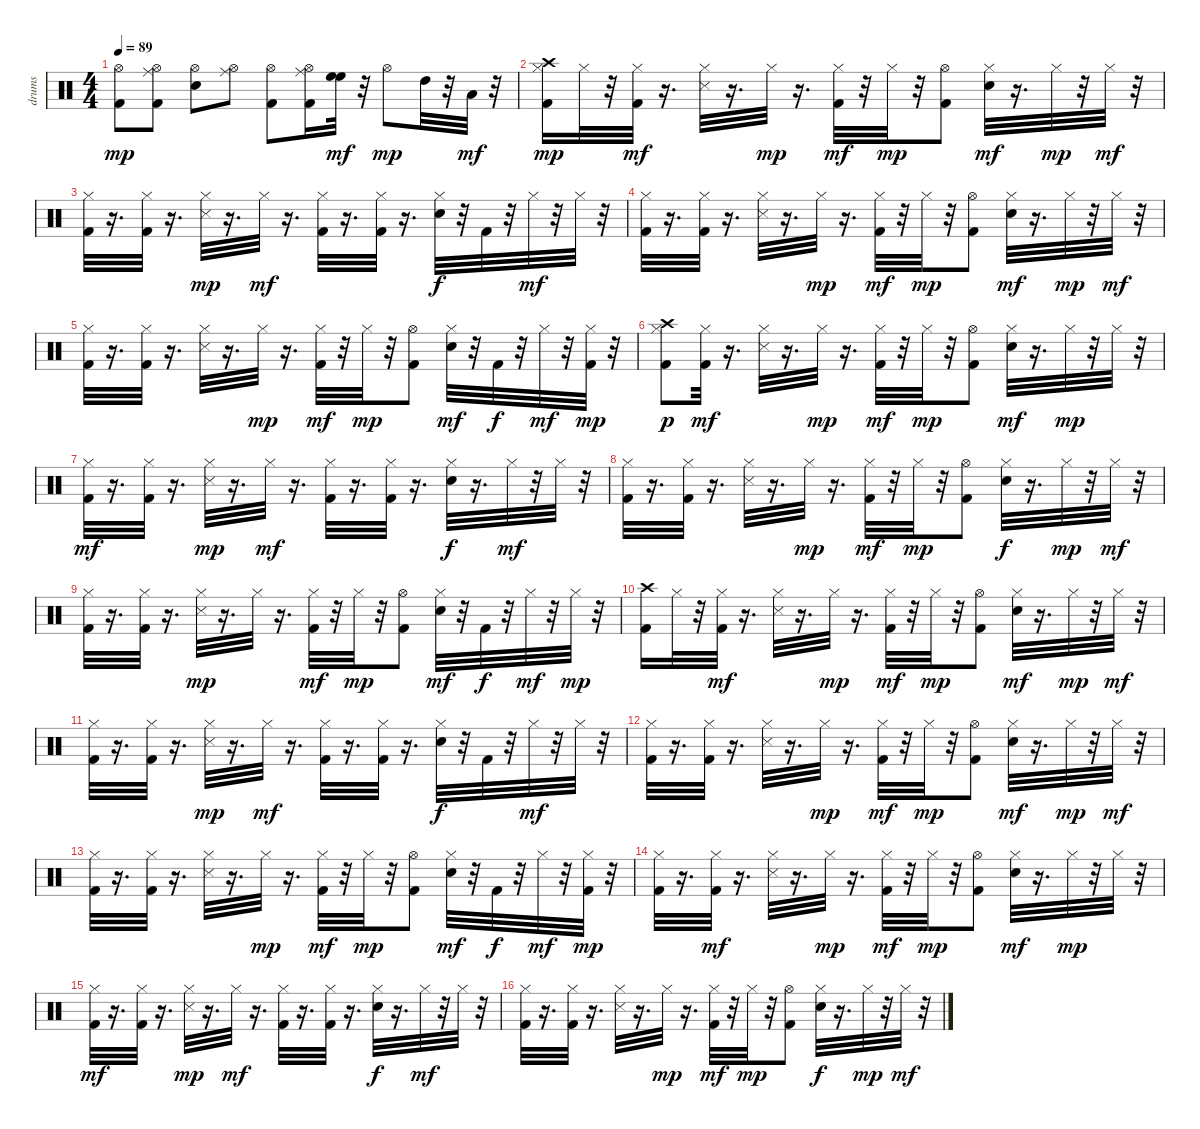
\track ("drums" "drums") {instrument percussion}
\staff {score}
\articulation defaults
\ts (4 4)
\tempo 89
\clef neutral
\ks c
("Kick (hit) 2" "Hi-Hat (open)").8{dy mp} ("Kick (hit) 2" "Hi-Hat (open)" "Ride (middle)").8 ("Snare (hit) 2" "Hi-Hat (open)").8 ("Hi-Hat (open)" "Ride (middle)").8 ("Kick (hit) 2" "Hi-Hat (open)").8 ("Kick (hit) 2" "Hi-Hat (open)" "Ride (middle)").16 ("High Floor Tom (hit)" "High Floor Tom (hit)").32{dy mf} r.32 "Hi-Hat (open)".8{dy mp} "High Tom (hit)".32 r.32 "Low Tom (hit)".32{dy mf} r.32 |
("Kick (hit) 2" "Hi-Hat (closed)" "Crash high (hit)").16{dy mp} "Hi-Hat (closed)".32 r.32 ("Kick (hit) 2" "Hi-Hat (closed)").32{dy mf} r.16{d} ("Snare (side stick) 3" "Hi-Hat (closed)").32 r.16{d} "Hi-Hat (closed)".32{dy mp} r.16{d} ("Kick (hit) 2" "Hi-Hat (closed)").32{dy mf} r.32 "Hi-Hat (closed)".32{dy mp} r.32 ("Kick (hit) 2" "Hi-Hat (open)").8 ("Snare (hit) 2" "Hi-Hat (closed)").32{dy mf} r.16{d} "Hi-Hat (closed)".32{dy mp} r.32 "Hi-Hat (closed)".32{dy mf} r.32 |
("Kick (hit) 2" "Hi-Hat (closed)").32 r.16{d} ("Kick (hit) 2" "Hi-Hat (closed)").32 r.16{d} ("Snare (side stick) 3" "Hi-Hat (closed)").32{dy mp} r.16{d} "Hi-Hat (closed)".32{dy mf} r.16{d} ("Kick (hit) 2" "Hi-Hat (closed)").32 r.16{d} ("Kick (hit) 2" "Hi-Hat (closed)").32 r.16{d} ("Snare (hit) 2" "Hi-Hat (closed)").32{dy f} r.32 "Kick (hit) 2".32 r.32 "Hi-Hat (closed)".32{dy mf} r.32 "Hi-Hat (closed)".32 r.32 |
("Kick (hit) 2" "Hi-Hat (closed)").32 r.16{d} ("Kick (hit) 2" "Hi-Hat (closed)").32 r.16{d} ("Snare (side stick) 3" "Hi-Hat (closed)").32 r.16{d} "Hi-Hat (closed)".32{dy mp} r.16{d} ("Kick (hit) 2" "Hi-Hat (closed)").32{dy mf} r.32 "Hi-Hat (closed)".32{dy mp} r.32 ("Kick (hit) 2" "Hi-Hat (open)").8 ("Snare (hit) 2" "Hi-Hat (closed)").32{dy mf} r.16{d} "Hi-Hat (closed)".32{dy mp} r.32 "Hi-Hat (closed)".32{dy mf} r.32 |
("Kick (hit) 2" "Hi-Hat (closed)").32 r.16{d} ("Kick (hit) 2" "Hi-Hat (closed)").32 r.16{d} ("Snare (side stick) 3" "Hi-Hat (closed)").32 r.16{d} "Hi-Hat (closed)".32{dy mp} r.16{d} ("Kick (hit) 2" "Hi-Hat (closed)").32{dy mf} r.32 "Hi-Hat (closed)".32{dy mp} r.32 ("Kick (hit) 2" "Hi-Hat (open)").8 ("Snare (hit) 2" "Hi-Hat (closed)").32{dy mf} r.32 "Kick (hit) 2".32{dy f} r.32 "Hi-Hat (closed)".32{dy mf} r.32 ("Kick (hit) 2" "Hi-Hat (closed)").32{dy mp} r.32 |
("Kick (hit) 2" "Hi-Hat (closed)" "Crash high (hit)").8{dy p} ("Kick (hit) 2" "Hi-Hat (closed)").32{dy mf} r.16{d} ("Snare (side stick) 3" "Hi-Hat (closed)").32 r.16{d} "Hi-Hat (closed)".32{dy mp} r.16{d} ("Kick (hit) 2" "Hi-Hat (closed)").32{dy mf} r.32 "Hi-Hat (closed)".32{dy mp} r.32 ("Kick (hit) 2" "Hi-Hat (open)").8 ("Snare (hit) 2" "Hi-Hat (closed)").32{dy mf} r.16{d} "Hi-Hat (closed)".32{dy mp} r.32 "Hi-Hat (closed)".32 r.32 |
("Kick (hit) 2" "Hi-Hat (closed)").32{dy mf} r.16{d} ("Kick (hit) 2" "Hi-Hat (closed)").32 r.16{d} ("Snare (side stick) 3" "Hi-Hat (closed)").32{dy mp} r.16{d} "Hi-Hat (closed)".32{dy mf} r.16{d} ("Kick (hit) 2" "Hi-Hat (closed)").32 r.16{d} ("Kick (hit) 2" "Hi-Hat (closed)").32 r.16{d} ("Snare (hit) 2" "Hi-Hat (closed)").32{dy f} r.16{d} "Hi-Hat (closed)".32{dy mf} r.32 "Hi-Hat (closed)".32 r.32 |
("Kick (hit) 2" "Hi-Hat (closed)").32 r.16{d} ("Kick (hit) 2" "Hi-Hat (closed)").32 r.16{d} ("Snare (side stick) 3" "Hi-Hat (closed)").32 r.16{d} "Hi-Hat (closed)".32{dy mp} r.16{d} ("Kick (hit) 2" "Hi-Hat (closed)").32{dy mf} r.32 "Hi-Hat (closed)".32{dy mp} r.32 ("Kick (hit) 2" "Hi-Hat (open)").8 ("Snare (hit) 2" "Hi-Hat (closed)").32{dy f} r.16{d} "Hi-Hat (closed)".32{dy mp} r.32 "Hi-Hat (closed)".32{dy mf} r.32 |
("Kick (hit) 2" "Hi-Hat (closed)").32 r.16{d} ("Kick (hit) 2" "Hi-Hat (closed)").32 r.16{d} ("Snare (side stick) 3" "Hi-Hat (closed)").32{dy mp} r.16{d} "Hi-Hat (closed)".32 r.16{d} ("Kick (hit) 2" "Hi-Hat (closed)").32{dy mf} r.32 "Hi-Hat (closed)".32{dy mp} r.32 ("Kick (hit) 2" "Hi-Hat (open)").8 ("Snare (hit) 2" "Hi-Hat (closed)").32{dy mf} r.32 "Kick (hit) 2".32{dy f} r.32 "Hi-Hat (closed)".32{dy mf} r.32 "Hi-Hat (closed)".32{dy mp} r.32 |
("Kick (hit) 2" "Crash high (hit)").16 "Hi-Hat (closed)".32 r.32 ("Kick (hit) 2" "Hi-Hat (closed)").32{dy mf} r.16{d} ("Snare (side stick) 3" "Hi-Hat (closed)").32 r.16{d} "Hi-Hat (closed)".32{dy mp} r.16{d} ("Kick (hit) 2" "Hi-Hat (closed)").32{dy mf} r.32 "Hi-Hat (closed)".32{dy mp} r.32 ("Kick (hit) 2" "Hi-Hat (open)").8 ("Snare (hit) 2" "Hi-Hat (closed)").32{dy mf} r.16{d} "Hi-Hat (closed)".32{dy mp} r.32 "Hi-Hat (closed)".32{dy mf} r.32 |
("Kick (hit) 2" "Hi-Hat (closed)").32 r.16{d} ("Kick (hit) 2" "Hi-Hat (closed)").32 r.16{d} ("Snare (side stick) 3" "Hi-Hat (closed)").32{dy mp} r.16{d} "Hi-Hat (closed)".32{dy mf} r.16{d} ("Kick (hit) 2" "Hi-Hat (closed)").32 r.16{d} ("Kick (hit) 2" "Hi-Hat (closed)").32 r.16{d} ("Snare (hit) 2" "Hi-Hat (closed)").32{dy f} r.32 "Kick (hit) 2".32 r.32 "Hi-Hat (closed)".32{dy mf} r.32 "Hi-Hat (closed)".32 r.32 |
("Kick (hit) 2" "Hi-Hat (closed)").32 r.16{d} ("Kick (hit) 2" "Hi-Hat (closed)").32 r.16{d} ("Snare (side stick) 3" "Hi-Hat (closed)").32 r.16{d} "Hi-Hat (closed)".32{dy mp} r.16{d} ("Kick (hit) 2" "Hi-Hat (closed)").32{dy mf} r.32 "Hi-Hat (closed)".32{dy mp} r.32 ("Kick (hit) 2" "Hi-Hat (open)").8 ("Snare (hit) 2" "Hi-Hat (closed)").32{dy mf} r.16{d} "Hi-Hat (closed)".32{dy mp} r.32 "Hi-Hat (closed)".32{dy mf} r.32 |
("Kick (hit) 2" "Hi-Hat (closed)").32 r.16{d} ("Kick (hit) 2" "Hi-Hat (closed)").32 r.16{d} ("Snare (side stick) 3" "Hi-Hat (closed)").32 r.16{d} "Hi-Hat (closed)".32{dy mp} r.16{d} ("Kick (hit) 2" "Hi-Hat (closed)").32{dy mf} r.32 "Hi-Hat (closed)".32{dy mp} r.32 ("Kick (hit) 2" "Hi-Hat (open)").8 ("Snare (hit) 2" "Hi-Hat (closed)").32{dy mf} r.32 "Kick (hit) 2".32{dy f} r.32 "Hi-Hat (closed)".32{dy mf} r.32 ("Kick (hit) 2" "Hi-Hat (closed)").32{dy mp} r.32 |
("Kick (hit) 2" "Hi-Hat (closed)").32 r.16{d} ("Kick (hit) 2" "Hi-Hat (closed)").32{dy mf} r.16{d} ("Snare (side stick) 3" "Hi-Hat (closed)").32 r.16{d} "Hi-Hat (closed)".32{dy mp} r.16{d} ("Kick (hit) 2" "Hi-Hat (closed)").32{dy mf} r.32 "Hi-Hat (closed)".32{dy mp} r.32 ("Kick (hit) 2" "Hi-Hat (open)").8 ("Snare (hit) 2" "Hi-Hat (closed)").32{dy mf} r.16{d} "Hi-Hat (closed)".32{dy mp} r.32 "Hi-Hat (closed)".32 r.32 |
("Kick (hit) 2" "Hi-Hat (closed)").32{dy mf} r.16{d} ("Kick (hit) 2" "Hi-Hat (closed)").32 r.16{d} ("Snare (side stick) 3" "Hi-Hat (closed)").32{dy mp} r.16{d} "Hi-Hat (closed)".32{dy mf} r.16{d} ("Kick (hit) 2" "Hi-Hat (closed)").32 r.16{d} ("Kick (hit) 2" "Hi-Hat (closed)").32 r.16{d} ("Snare (hit) 2" "Hi-Hat (closed)").32{dy f} r.16{d} "Hi-Hat (closed)".32{dy mf} r.32 "Hi-Hat (closed)".32 r.32 |
("Kick (hit) 2" "Hi-Hat (closed)").32 r.16{d} ("Kick (hit) 2" "Hi-Hat (closed)").32 r.16{d} ("Snare (side stick) 3" "Hi-Hat (closed)").32 r.16{d} "Hi-Hat (closed)".32{dy mp} r.16{d} ("Kick (hit) 2" "Hi-Hat (closed)").32{dy mf} r.32 "Hi-Hat (closed)".32{dy mp} r.32 ("Kick (hit) 2" "Hi-Hat (open)").8 ("Snare (hit) 2" "Hi-Hat (closed)").32{dy f} r.16{d} "Hi-Hat (closed)".32{dy mp} r.32 "Hi-Hat (closed)".32{dy mf} r.32
